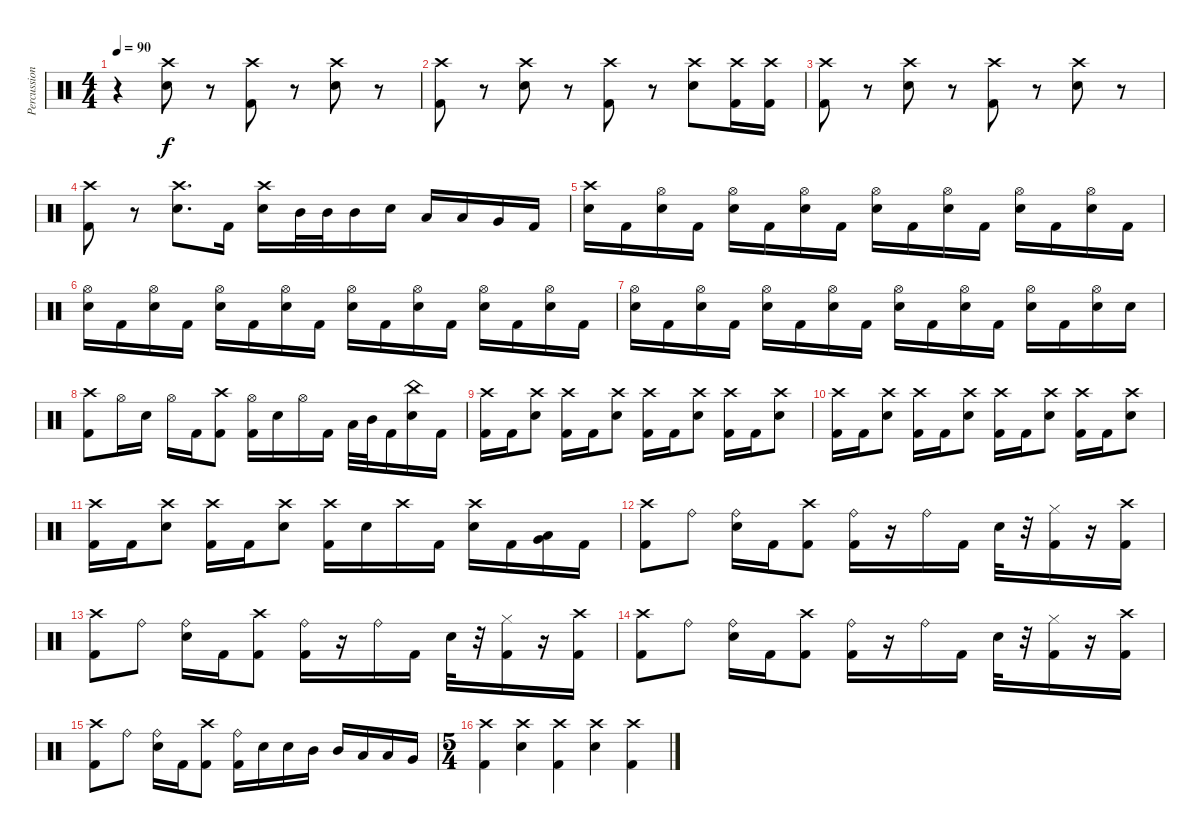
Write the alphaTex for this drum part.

\track ("Percussion" "Percussion") {instrument percussion}
\staff {score}
\articulation defaults
\ts (4 4)
\tempo 90
\clef neutral
\ks c
r.4{dy f} ("Crash high (hit)" "Snare (hit) 2").8 r.8 ("Crash high (hit)" "Kick (hit) 2").8 r.8 ("Crash high (hit)" "Snare (hit) 2").8 r.8 |
("Crash high (hit)" "Kick (hit) 2").8 r.8 ("Crash high (hit)" "Snare (hit) 2").8 r.8 ("Crash high (hit)" "Kick (hit) 2").8 r.8 ("Crash high (hit)" "Snare (hit) 2").8 ("Crash high (hit)" "Kick (hit) 2").16 ("Crash high (hit)" "Kick (hit) 2").16 |
("Crash high (hit)" "Kick (hit) 2").8 r.8 ("Crash high (hit)" "Snare (hit) 2").8 r.8 ("Crash high (hit)" "Kick (hit) 2").8 r.8 ("Crash high (hit)" "Snare (hit) 2").8 r.8 |
("Crash high (hit)" "Kick (hit) 2").8 r.8 ("Crash high (hit)" "Snare (hit) 2").8{d} "Kick (hit) 2".16 ("Crash high (hit)" "Snare (hit) 2").16 "Mid Tom (hit)".32 "Mid Tom (hit)".32 "Mid Tom (hit)".16 "Snare (hit) 2".16 "Low Tom (hit)".16 "Low Tom (hit)".16 "Very Low Tom (hit)".16 "Kick (hit) 2".16 |
("Crash high (hit)" "Snare (hit) 2").16 "Kick (hit) 2".16 ("Hi-Hat (open)" "Snare (hit) 2").16 "Kick (hit) 2".16 ("Hi-Hat (open)" "Snare (hit) 2").16 "Kick (hit) 2".16 ("Hi-Hat (open)" "Snare (hit) 2").16 "Kick (hit) 2".16 ("Hi-Hat (open)" "Snare (hit) 2").16 "Kick (hit) 2".16 ("Hi-Hat (open)" "Snare (hit) 2").16 "Kick (hit) 2".16 ("Hi-Hat (open)" "Snare (hit) 2").16 "Kick (hit) 2".16 ("Hi-Hat (open)" "Snare (hit) 2").16 "Kick (hit) 2".16 |
("Hi-Hat (open)" "Snare (hit) 2").16 "Kick (hit) 2".16 ("Hi-Hat (open)" "Snare (hit) 2").16 "Kick (hit) 2".16 ("Hi-Hat (open)" "Snare (hit) 2").16 "Kick (hit) 2".16 ("Hi-Hat (open)" "Snare (hit) 2").16 "Kick (hit) 2".16 ("Hi-Hat (open)" "Snare (hit) 2").16 "Kick (hit) 2".16 ("Hi-Hat (open)" "Snare (hit) 2").16 "Kick (hit) 2".16 ("Hi-Hat (open)" "Snare (hit) 2").16 "Kick (hit) 2".16 ("Hi-Hat (open)" "Snare (hit) 2").16 "Kick (hit) 2".16 |
("Hi-Hat (open)" "Snare (hit) 2").16 "Kick (hit) 2".16 ("Hi-Hat (open)" "Snare (hit) 2").16 "Kick (hit) 2".16 ("Hi-Hat (open)" "Snare (hit) 2").16 "Kick (hit) 2".16 ("Hi-Hat (open)" "Snare (hit) 2").16 "Kick (hit) 2".16 ("Hi-Hat (open)" "Snare (hit) 2").16 "Kick (hit) 2".16 ("Hi-Hat (open)" "Snare (hit) 2").16 "Kick (hit) 2".16 ("Hi-Hat (open)" "Snare (hit) 2").16 "Kick (hit) 2".16 ("Hi-Hat (open)" "Snare (hit) 2").16 "Snare (hit) 2".16 |
("Crash high (hit)" "Kick (hit) 2").8 "Hi-Hat (open)".16 "Snare (hit) 2".16 "Hi-Hat (open)".16 "Kick (hit) 2".16 ("Crash high (hit)" "Kick (hit) 2").8 ("Hi-Hat (open)" "Kick (hit) 2").16 "Snare (hit) 2".16 "Hi-Hat (open)".16 "Kick (hit) 2".16 "Low Tom (hit)".32 "Mid Tom (hit)".32 "Kick (hit) 2".16 ("China (hit)" "Snare (hit) 2").16 "Kick (hit) 2".16 |
("Crash high (hit)" "Kick (hit) 2").16 "Kick (hit) 2".16 ("Crash high (hit)" "Snare (hit) 2").8 ("Crash high (hit)" "Kick (hit) 2").16 "Kick (hit) 2".16 ("Crash high (hit)" "Snare (hit) 2").8 ("Crash high (hit)" "Kick (hit) 2").16 "Kick (hit) 2".16 ("Crash high (hit)" "Snare (hit) 2").8 ("Crash high (hit)" "Kick (hit) 2").16 "Kick (hit) 2".16 ("Crash high (hit)" "Snare (hit) 2").8 |
("Crash high (hit)" "Kick (hit) 2").16 "Kick (hit) 2".16 ("Crash high (hit)" "Snare (hit) 2").8 ("Crash high (hit)" "Kick (hit) 2").16 "Kick (hit) 2".16 ("Crash high (hit)" "Snare (hit) 2").8 ("Crash high (hit)" "Kick (hit) 2").16 "Kick (hit) 2".16 ("Crash high (hit)" "Snare (hit) 2").8 ("Crash high (hit)" "Kick (hit) 2").16 "Kick (hit) 2".16 ("Crash high (hit)" "Snare (hit) 2").8 |
("Crash high (hit)" "Kick (hit) 2").16 "Kick (hit) 2".16 ("Crash high (hit)" "Snare (hit) 2").8 ("Crash high (hit)" "Kick (hit) 2").16 "Kick (hit) 2".16 ("Crash high (hit)" "Snare (hit) 2").8 ("Crash high (hit)" "Kick (hit) 2").16 "Snare (hit) 2".16 "Crash high (hit)".16 "Kick (hit) 2".16 ("Crash high (hit)" "Snare (hit) 2").16 "Kick (hit) 2".16 ("Low Tom (hit)" "Very Low Tom (hit)").16 "Kick (hit) 2".16 |
("Crash high (hit)" "Kick (hit) 2").8 "Ride (bell)".8 ("Ride (bell)" "Snare (hit) 2").16 "Kick (hit) 2".16 ("Crash high (hit)" "Kick (hit) 2").8 ("Ride (bell)" "Kick (hit) 2").16 r.16 "Ride (bell)".16 "Kick (hit) 2".16 "Snare (hit) 2".32 r.32 ("Hi-Hat (closed)" "Kick (hit) 2").16 r.16 ("Crash high (hit)" "Kick (hit) 2").16 |
("Crash high (hit)" "Kick (hit) 2").8 "Ride (bell)".8 ("Ride (bell)" "Snare (hit) 2").16 "Kick (hit) 2".16 ("Crash high (hit)" "Kick (hit) 2").8 ("Ride (bell)" "Kick (hit) 2").16 r.16 "Ride (bell)".16 "Kick (hit) 2".16 "Snare (hit) 2".32 r.32 ("Hi-Hat (closed)" "Kick (hit) 2").16 r.16 ("Crash high (hit)" "Kick (hit) 2").16 |
("Crash high (hit)" "Kick (hit) 2").8 "Ride (bell)".8 ("Ride (bell)" "Snare (hit) 2").16 "Kick (hit) 2".16 ("Crash high (hit)" "Kick (hit) 2").8 ("Ride (bell)" "Kick (hit) 2").16 r.16 "Ride (bell)".16 "Kick (hit) 2".16 "Snare (hit) 2".32 r.32 ("Hi-Hat (closed)" "Kick (hit) 2").16 r.16 ("Crash high (hit)" "Kick (hit) 2").16 |
("Crash high (hit)" "Kick (hit) 2").8 "Ride (bell)".8 ("Ride (bell)" "Snare (hit) 2").16 "Kick (hit) 2".16 ("Crash high (hit)" "Kick (hit) 2").8 ("Ride (bell)" "Kick (hit) 2").16 "Snare (hit) 2".16 "Snare (hit) 2".16 "Mid Tom (hit)".16 "Mid Tom (hit)".16 "Low Tom (hit)".16 "Low Tom (hit)".16 "Very Low Tom (hit)".16 |
\ts (5 4)
("Crash high (hit)" "Kick (hit) 2").4 ("Crash high (hit)" "Snare (hit) 2").4 ("Crash high (hit)" "Kick (hit) 2").4 ("Crash high (hit)" "Snare (hit) 2").4 ("Crash high (hit)" "Kick (hit) 2").4
